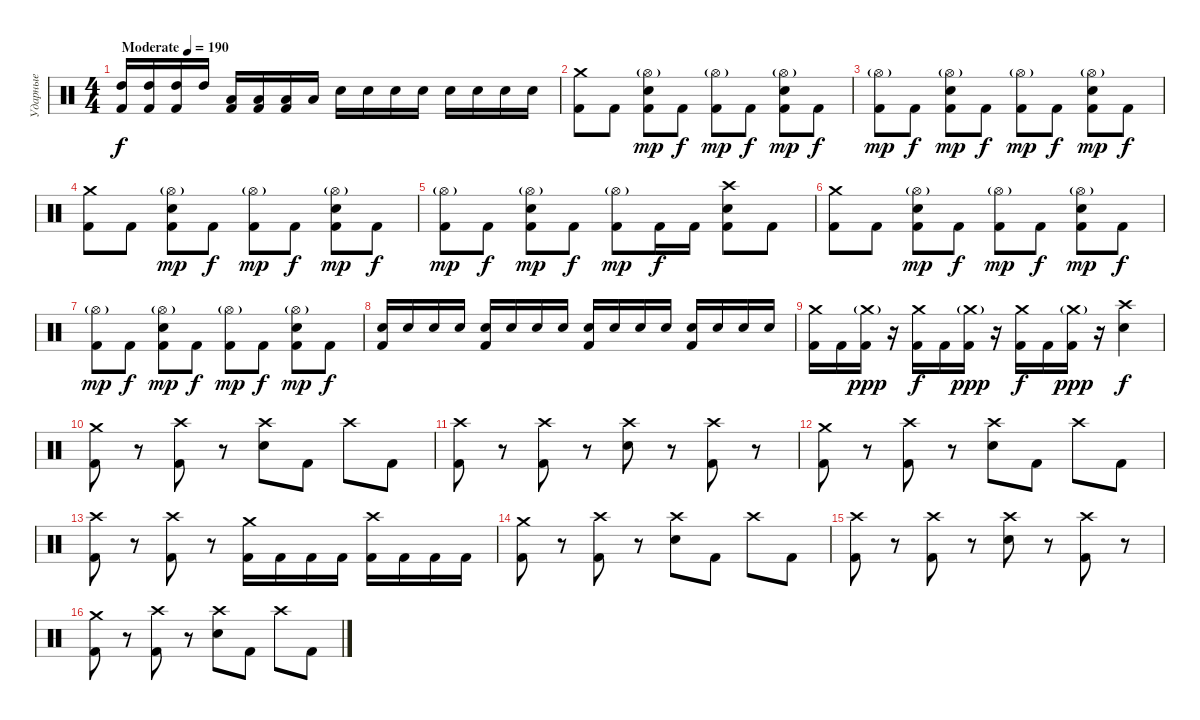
\track ("Ударные" "Ударные") {instrument percussion}
\staff {score}
\articulation defaults
\ts (4 4)
\tempo (190 "Moderate")
\clef neutral
\ks c
("High Tom (hit)" "Kick (hit) 2").16{dy f} ("High Tom (hit)" "Kick (hit) 2").16 ("High Tom (hit)" "Kick (hit) 2").16 "High Tom (hit)".16 ("Low Tom (hit)" "Kick (hit) 2").16 ("Low Tom (hit)" "Kick (hit) 2").16 ("Low Tom (hit)" "Kick (hit) 2").16 "Low Tom (hit)".16 "Electric Snare (hit)".16 "Electric Snare (hit)".16 "Electric Snare (hit)".16 "Electric Snare (hit)".16 "Electric Snare (hit)".16 "Electric Snare (hit)".16 "Electric Snare (hit)".16 "Electric Snare (hit)".16 |
("Crash medium (hit)" "Kick (hit) 2").8 "Kick (hit) 2".8 ("Hi-Hat (open)"{g} "Electric Snare (hit)" "Kick (hit) 2").8{dy mp} "Kick (hit) 2".8{dy f} ("Hi-Hat (open)"{g} "Kick (hit) 2").8{dy mp} "Kick (hit) 2".8{dy f} ("Hi-Hat (open)"{g} "Electric Snare (hit)" "Kick (hit) 2").8{dy mp} "Kick (hit) 2".8{dy f} |
("Hi-Hat (open)"{g} "Kick (hit) 2").8{dy mp} "Kick (hit) 2".8{dy f} ("Hi-Hat (open)"{g} "Electric Snare (hit)" "Kick (hit) 2").8{dy mp} "Kick (hit) 2".8{dy f} ("Hi-Hat (open)"{g} "Kick (hit) 2").8{dy mp} "Kick (hit) 2".8{dy f} ("Hi-Hat (open)"{g} "Electric Snare (hit)" "Kick (hit) 2").8{dy mp} "Kick (hit) 2".8{dy f} |
("Crash medium (hit)" "Kick (hit) 2").8 "Kick (hit) 2".8 ("Hi-Hat (open)"{g} "Electric Snare (hit)" "Kick (hit) 2").8{dy mp} "Kick (hit) 2".8{dy f} ("Hi-Hat (open)"{g} "Kick (hit) 2").8{dy mp} "Kick (hit) 2".8{dy f} ("Hi-Hat (open)"{g} "Electric Snare (hit)" "Kick (hit) 2").8{dy mp} "Kick (hit) 2".8{dy f} |
("Hi-Hat (open)"{g} "Kick (hit) 2").8{dy mp} "Kick (hit) 2".8{dy f} ("Hi-Hat (open)"{g} "Electric Snare (hit)" "Kick (hit) 2").8{dy mp} "Kick (hit) 2".8{dy f} ("Hi-Hat (open)"{g} "Kick (hit) 2").8{dy mp} "Kick (hit) 2".16{dy f} "Kick (hit) 2".16 ("Crash high (hit)" "Electric Snare (hit)" "Kick (hit) 2").8 "Kick (hit) 2".8 |
("Crash medium (hit)" "Kick (hit) 2").8 "Kick (hit) 2".8 ("Hi-Hat (open)"{g} "Electric Snare (hit)" "Kick (hit) 2").8{dy mp} "Kick (hit) 2".8{dy f} ("Hi-Hat (open)"{g} "Kick (hit) 2").8{dy mp} "Kick (hit) 2".8{dy f} ("Hi-Hat (open)"{g} "Electric Snare (hit)" "Kick (hit) 2").8{dy mp} "Kick (hit) 2".8{dy f} |
("Hi-Hat (open)"{g} "Kick (hit) 2").8{dy mp} "Kick (hit) 2".8{dy f} ("Hi-Hat (open)"{g} "Electric Snare (hit)" "Kick (hit) 2").8{dy mp} "Kick (hit) 2".8{dy f} ("Hi-Hat (open)"{g} "Kick (hit) 2").8{dy mp} "Kick (hit) 2".8{dy f} ("Hi-Hat (open)"{g} "Electric Snare (hit)" "Kick (hit) 2").8{dy mp} "Kick (hit) 2".8{dy f} |
("Electric Snare (hit)" "Kick (hit) 2").16 "Electric Snare (hit)".16 "Electric Snare (hit)".16 "Electric Snare (hit)".16 ("Electric Snare (hit)" "Kick (hit) 2").16 "Electric Snare (hit)".16 "Electric Snare (hit)".16 "Electric Snare (hit)".16 ("Electric Snare (hit)" "Kick (hit) 2").16 "Electric Snare (hit)".16 "Electric Snare (hit)".16 "Electric Snare (hit)".16 ("Electric Snare (hit)" "Kick (hit) 2").16 "Electric Snare (hit)".16 "Electric Snare (hit)".16 "Electric Snare (hit)".16 |
("Crash medium (hit)" "Kick (hit) 2").16 "Kick (hit) 2".16 ("Crash medium (hit)"{g} "Kick (hit) 2").16{dy ppp} r.16 ("Crash medium (hit)" "Kick (hit) 2").16{dy f} "Kick (hit) 2".16 ("Crash medium (hit)"{g} "Kick (hit) 2").16{dy ppp} r.16 ("Crash medium (hit)" "Kick (hit) 2").16{dy f} "Kick (hit) 2".16 ("Crash medium (hit)"{g} "Kick (hit) 2").16{dy ppp} r.16 ("Crash high (hit)" "Electric Snare (hit)").4{dy f} |
("Crash medium (hit)" "Kick (hit) 2").8 r.8 ("Crash high (hit)" "Kick (hit) 2").8 r.8 ("Crash high (hit)" "Electric Snare (hit)").8 "Kick (hit) 2".8 "Crash high (hit)".8 "Kick (hit) 2".8 |
("Crash high (hit)" "Kick (hit) 2").8 r.8 ("Crash high (hit)" "Kick (hit) 2").8 r.8 ("Crash high (hit)" "Electric Snare (hit)").8 r.8 ("Crash high (hit)" "Kick (hit) 2").8 r.8 |
("Crash medium (hit)" "Kick (hit) 2").8 r.8 ("Crash high (hit)" "Kick (hit) 2").8 r.8 ("Crash high (hit)" "Electric Snare (hit)").8 "Kick (hit) 2".8 "Crash high (hit)".8 "Kick (hit) 2".8 |
("Crash high (hit)" "Kick (hit) 2").8 r.8 ("Crash high (hit)" "Kick (hit) 2").8 r.8 ("Crash medium (hit)" "Kick (hit) 2").16 "Kick (hit) 2".16 "Kick (hit) 2".16 "Kick (hit) 2".16 ("Crash high (hit)" "Kick (hit) 2").16 "Kick (hit) 2".16 "Kick (hit) 2".16 "Kick (hit) 2".16 |
("Crash medium (hit)" "Kick (hit) 2").8 r.8 ("Crash high (hit)" "Kick (hit) 2").8 r.8 ("Crash high (hit)" "Electric Snare (hit)").8 "Kick (hit) 2".8 "Crash high (hit)".8 "Kick (hit) 2".8 |
("Crash high (hit)" "Kick (hit) 2").8 r.8 ("Crash high (hit)" "Kick (hit) 2").8 r.8 ("Crash high (hit)" "Electric Snare (hit)").8 r.8 ("Crash high (hit)" "Kick (hit) 2").8 r.8 |
("Crash medium (hit)" "Kick (hit) 2").8 r.8 ("Crash high (hit)" "Kick (hit) 2").8 r.8 ("Crash high (hit)" "Electric Snare (hit)").8 "Kick (hit) 2".8 "Crash high (hit)".8 "Kick (hit) 2".8
